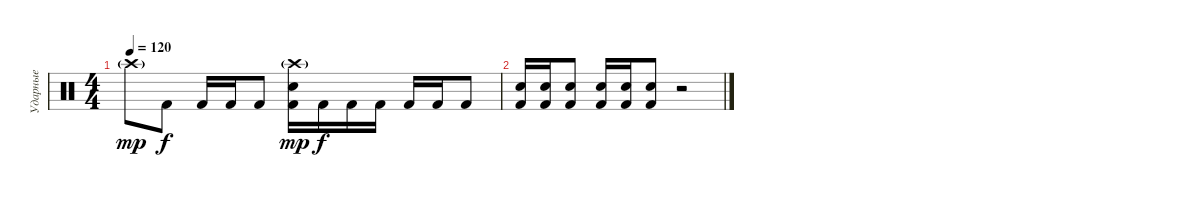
\track ("Ударные" "Ударные") {instrument percussion}
\staff {score}
\articulation defaults
\ts (4 4)
\tempo 120
\clef neutral
\ks c "Crash high (hit)"{g}.8{dy mp} "Kick (hit) 2".8{dy f} "Kick (hit) 2".16 "Kick (hit) 2".16 "Kick (hit) 2".8
("Crash high (hit)"{g} "Electric Snare (hit)" "Kick (hit) 2").16{dy mp} "Kick (hit) 2".16{dy f} "Kick (hit) 2".16 "Kick (hit) 2".16 "Kick (hit) 2".16 "Kick (hit) 2".16 "Kick (hit) 2".8 |
("Electric Snare (hit)" "Kick (hit) 2").16 ("Electric Snare (hit)" "Kick (hit) 2").16 ("Electric Snare (hit)" "Kick (hit) 2").8 ("Electric Snare (hit)" "Kick (hit) 2").16 ("Electric Snare (hit)" "Kick (hit) 2").16 ("Electric Snare (hit)" "Kick (hit) 2").8 r.2
